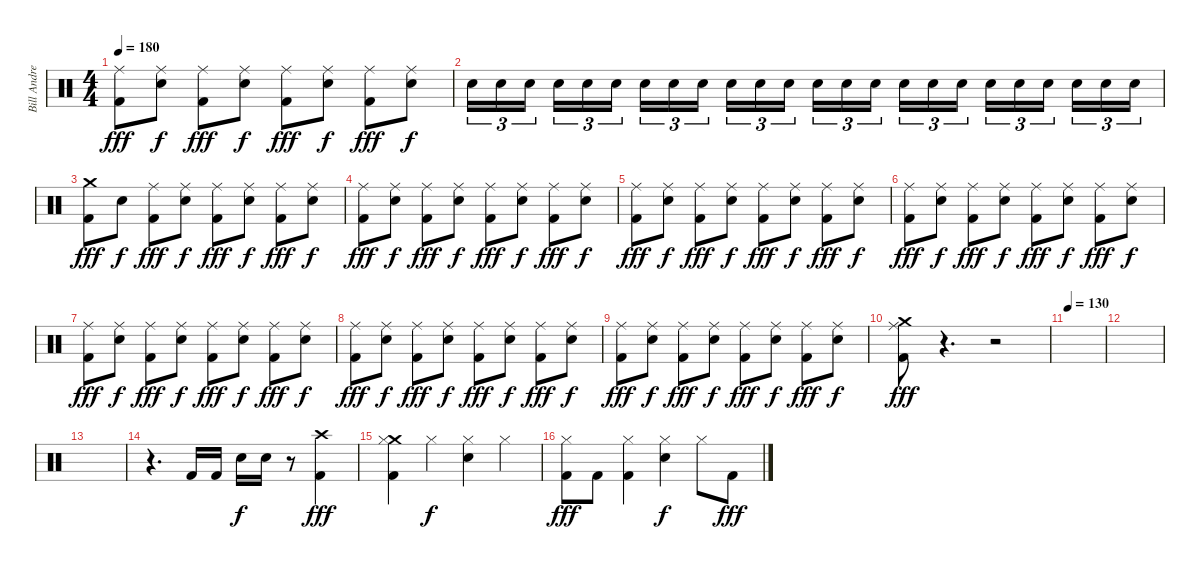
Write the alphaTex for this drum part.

\track ("Bill Andrews" "Bill Andre") {instrument percussion}
\staff {score}
\articulation defaults
\ts (4 4)
\tempo 180
\clef neutral
\ks c
("Ride (middle)" "Kick (hit) 2").8{dy fff} ("Ride (middle)" "Electric Snare (hit)").8{dy f} ("Ride (middle)" "Kick (hit) 2").8{dy fff} ("Ride (middle)" "Electric Snare (hit)").8{dy f} ("Ride (middle)" "Kick (hit) 2").8{dy fff} ("Ride (middle)" "Electric Snare (hit)").8{dy f} ("Ride (middle)" "Kick (hit) 2").8{dy fff} ("Ride (middle)" "Electric Snare (hit)").8{dy f} |
"Electric Snare (hit)".16{tu (3 2)} "Electric Snare (hit)".16{tu (3 2)} "Electric Snare (hit)".16{tu (3 2) beam splitsecondary} "Electric Snare (hit)".16{tu (3 2)} "Electric Snare (hit)".16{tu (3 2)} "Electric Snare (hit)".16{tu (3 2)} "Electric Snare (hit)".16{tu (3 2)} "Electric Snare (hit)".16{tu (3 2)} "Electric Snare (hit)".16{tu (3 2) beam splitsecondary} "Electric Snare (hit)".16{tu (3 2)} "Electric Snare (hit)".16{tu (3 2)} "Electric Snare (hit)".16{tu (3 2)} "Electric Snare (hit)".16{tu (3 2)} "Electric Snare (hit)".16{tu (3 2)} "Electric Snare (hit)".16{tu (3 2) beam splitsecondary} "Electric Snare (hit)".16{tu (3 2)} "Electric Snare (hit)".16{tu (3 2)} "Electric Snare (hit)".16{tu (3 2)} "Electric Snare (hit)".16{tu (3 2)} "Electric Snare (hit)".16{tu (3 2)} "Electric Snare (hit)".16{tu (3 2) beam splitsecondary} "Electric Snare (hit)".16{tu (3 2)} "Electric Snare (hit)".16{tu (3 2)} "Electric Snare (hit)".16{tu (3 2)} |
("Crash medium (hit)" "Kick (hit) 2").8{dy fff} "Electric Snare (hit)".8{dy f} ("Ride (middle)" "Kick (hit) 2").8{dy fff} ("Ride (middle)" "Electric Snare (hit)").8{dy f} ("Ride (middle)" "Kick (hit) 2").8{dy fff} ("Ride (middle)" "Electric Snare (hit)").8{dy f} ("Ride (middle)" "Kick (hit) 2").8{dy fff} ("Ride (middle)" "Electric Snare (hit)").8{dy f} |
("Ride (middle)" "Kick (hit) 2").8{dy fff} ("Ride (middle)" "Electric Snare (hit)").8{dy f} ("Ride (middle)" "Kick (hit) 2").8{dy fff} ("Ride (middle)" "Electric Snare (hit)").8{dy f} ("Ride (middle)" "Kick (hit) 2").8{dy fff} ("Ride (middle)" "Electric Snare (hit)").8{dy f} ("Ride (middle)" "Kick (hit) 2").8{dy fff} ("Ride (middle)" "Electric Snare (hit)").8{dy f} |
("Ride (middle)" "Kick (hit) 2").8{dy fff} ("Ride (middle)" "Electric Snare (hit)").8{dy f} ("Ride (middle)" "Kick (hit) 2").8{dy fff} ("Ride (middle)" "Electric Snare (hit)").8{dy f} ("Ride (middle)" "Kick (hit) 2").8{dy fff} ("Ride (middle)" "Electric Snare (hit)").8{dy f} ("Ride (middle)" "Kick (hit) 2").8{dy fff} ("Ride (middle)" "Electric Snare (hit)").8{dy f} |
("Ride (middle)" "Kick (hit) 2").8{dy fff} ("Ride (middle)" "Electric Snare (hit)").8{dy f} ("Ride (middle)" "Kick (hit) 2").8{dy fff} ("Ride (middle)" "Electric Snare (hit)").8{dy f} ("Ride (middle)" "Kick (hit) 2").8{dy fff} ("Ride (middle)" "Electric Snare (hit)").8{dy f} ("Ride (middle)" "Kick (hit) 2").8{dy fff} ("Ride (middle)" "Electric Snare (hit)").8{dy f} |
("Ride (middle)" "Kick (hit) 2").8{dy fff} ("Ride (middle)" "Electric Snare (hit)").8{dy f} ("Ride (middle)" "Kick (hit) 2").8{dy fff} ("Ride (middle)" "Electric Snare (hit)").8{dy f} ("Ride (middle)" "Kick (hit) 2").8{dy fff} ("Ride (middle)" "Electric Snare (hit)").8{dy f} ("Ride (middle)" "Kick (hit) 2").8{dy fff} ("Ride (middle)" "Electric Snare (hit)").8{dy f} |
("Ride (middle)" "Kick (hit) 2").8{dy fff} ("Ride (middle)" "Electric Snare (hit)").8{dy f} ("Ride (middle)" "Kick (hit) 2").8{dy fff} ("Ride (middle)" "Electric Snare (hit)").8{dy f} ("Ride (middle)" "Kick (hit) 2").8{dy fff} ("Ride (middle)" "Electric Snare (hit)").8{dy f} ("Ride (middle)" "Kick (hit) 2").8{dy fff} ("Ride (middle)" "Electric Snare (hit)").8{dy f} |
("Ride (middle)" "Kick (hit) 2").8{dy fff} ("Ride (middle)" "Electric Snare (hit)").8{dy f} ("Ride (middle)" "Kick (hit) 2").8{dy fff} ("Ride (middle)" "Electric Snare (hit)").8{dy f} ("Ride (middle)" "Kick (hit) 2").8{dy fff} ("Ride (middle)" "Electric Snare (hit)").8{dy f} ("Ride (middle)" "Kick (hit) 2").8{dy fff} ("Ride (middle)" "Electric Snare (hit)").8{dy f} |
("Crash medium (hit)" "Ride (middle)" "Kick (hit) 2").8{dy fff} r.4{d} r.2 |
\tempo 130
|
|
|
r.4{d} "Kick (hit) 2".16 "Kick (hit) 2".16 "Electric Snare (hit)".16{dy f} "Electric Snare (hit)".16 r.8 ("Crash high (hit)" "Kick (hit) 2").4{dy fff} |
("Crash medium (hit)" "Hi-Hat (closed)" "Kick (hit) 2").4 "Hi-Hat (closed)".4{dy f} ("Hi-Hat (closed)" "Electric Snare (hit)").4 "Hi-Hat (closed)".4 |
("Hi-Hat (closed)" "Kick (hit) 2").8{dy fff} "Kick (hit) 2".8 ("Hi-Hat (closed)" "Kick (hit) 2").4 ("Hi-Hat (closed)" "Electric Snare (hit)").4{dy f} "Hi-Hat (closed)".8 "Kick (hit) 2".8{dy fff}
